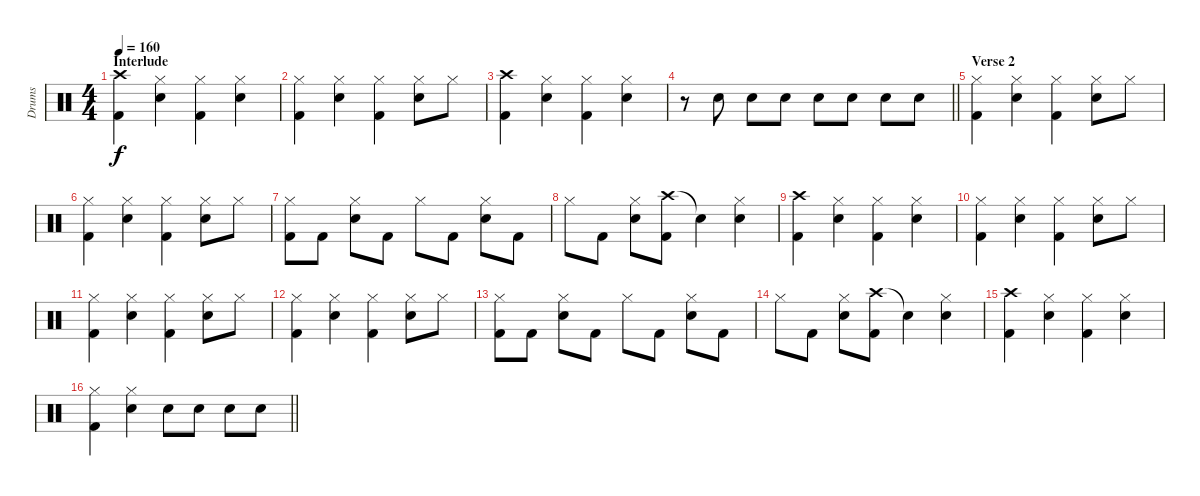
\track ("Drums" "Drums") {instrument percussion}
\staff {score}
\articulation defaults
\ts (4 4)
\section ("" "Interlude")
\tempo 160
\clef neutral
\ks c
("Crash high (hit)" "Kick (hit) 2").4{dy f} ("Hi-Hat (closed)" "Snare (hit) 2").4 ("Hi-Hat (closed)" "Kick (hit) 2").4 ("Hi-Hat (closed)" "Snare (hit) 2").4 |
("Hi-Hat (closed)" "Kick (hit) 2").4 ("Hi-Hat (closed)" "Snare (hit) 2").4 ("Hi-Hat (closed)" "Kick (hit) 2").4 ("Hi-Hat (closed)" "Snare (hit) 2").8 "Hi-Hat (closed)".8 |
("Crash high (hit)" "Kick (hit) 2").4 ("Hi-Hat (closed)" "Snare (hit) 2").4 ("Hi-Hat (closed)" "Kick (hit) 2").4 ("Hi-Hat (closed)" "Snare (hit) 2").4 |
\barLineRight lightlight
r.8 "Snare (hit) 2".8 "Snare (hit) 2".8 "Snare (hit) 2".8 "Snare (hit) 2".8 "Snare (hit) 2".8 "Snare (hit) 2".8 "Snare (hit) 2".8 |
\section ("" "Verse 2")
("Hi-Hat (closed)" "Kick (hit) 2").4 ("Hi-Hat (closed)" "Snare (hit) 2").4 ("Hi-Hat (closed)" "Kick (hit) 2").4 ("Hi-Hat (closed)" "Snare (hit) 2").8 "Hi-Hat (closed)".8 |
("Hi-Hat (closed)" "Kick (hit) 2").4 ("Hi-Hat (closed)" "Snare (hit) 2").4 ("Hi-Hat (closed)" "Kick (hit) 2").4 ("Hi-Hat (closed)" "Snare (hit) 2").8 "Hi-Hat (closed)".8 |
("Hi-Hat (closed)" "Kick (hit) 2").8 "Kick (hit) 2".8 ("Hi-Hat (closed)" "Snare (hit) 2").8 "Kick (hit) 2".8 "Hi-Hat (closed)".8 "Kick (hit) 2".8 ("Hi-Hat (closed)" "Snare (hit) 2").8 "Kick (hit) 2".8 |
"Hi-Hat (closed)".8 "Kick (hit) 2".8 ("Hi-Hat (closed)" "Snare (hit) 2").8 ("Crash high (hit)" "Kick (hit) 2").8 "Snare (hit)"{t}.4 ("Hi-Hat (closed)" "Snare (hit) 2").4 |
("Crash high (hit)" "Kick (hit) 2").4 ("Hi-Hat (closed)" "Snare (hit) 2").4 ("Hi-Hat (closed)" "Kick (hit) 2").4 ("Hi-Hat (closed)" "Snare (hit) 2").4 |
("Hi-Hat (closed)" "Kick (hit) 2").4 ("Hi-Hat (closed)" "Snare (hit) 2").4 ("Hi-Hat (closed)" "Kick (hit) 2").4 ("Hi-Hat (closed)" "Snare (hit) 2").8 "Hi-Hat (closed)".8 |
("Hi-Hat (closed)" "Kick (hit) 2").4 ("Hi-Hat (closed)" "Snare (hit) 2").4 ("Hi-Hat (closed)" "Kick (hit) 2").4 ("Hi-Hat (closed)" "Snare (hit) 2").8 "Hi-Hat (closed)".8 |
("Hi-Hat (closed)" "Kick (hit) 2").4 ("Hi-Hat (closed)" "Snare (hit) 2").4 ("Hi-Hat (closed)" "Kick (hit) 2").4 ("Hi-Hat (closed)" "Snare (hit) 2").8 "Hi-Hat (closed)".8 |
("Hi-Hat (closed)" "Kick (hit) 2").8 "Kick (hit) 2".8 ("Hi-Hat (closed)" "Snare (hit) 2").8 "Kick (hit) 2".8 "Hi-Hat (closed)".8 "Kick (hit) 2".8 ("Hi-Hat (closed)" "Snare (hit) 2").8 "Kick (hit) 2".8 |
"Hi-Hat (closed)".8 "Kick (hit) 2".8 ("Hi-Hat (closed)" "Snare (hit) 2").8 ("Crash high (hit)" "Kick (hit) 2").8 "Snare (hit)"{t}.4 ("Hi-Hat (closed)" "Snare (hit) 2").4 |
("Crash high (hit)" "Kick (hit) 2").4 ("Hi-Hat (closed)" "Snare (hit) 2").4 ("Hi-Hat (closed)" "Kick (hit) 2").4 ("Hi-Hat (closed)" "Snare (hit) 2").4 |
\barLineRight lightlight
("Hi-Hat (closed)" "Kick (hit) 2").4 ("Hi-Hat (closed)" "Snare (hit) 2").4 "Snare (hit) 2".8 "Snare (hit) 2".8 "Snare (hit) 2".8 "Snare (hit) 2".8
